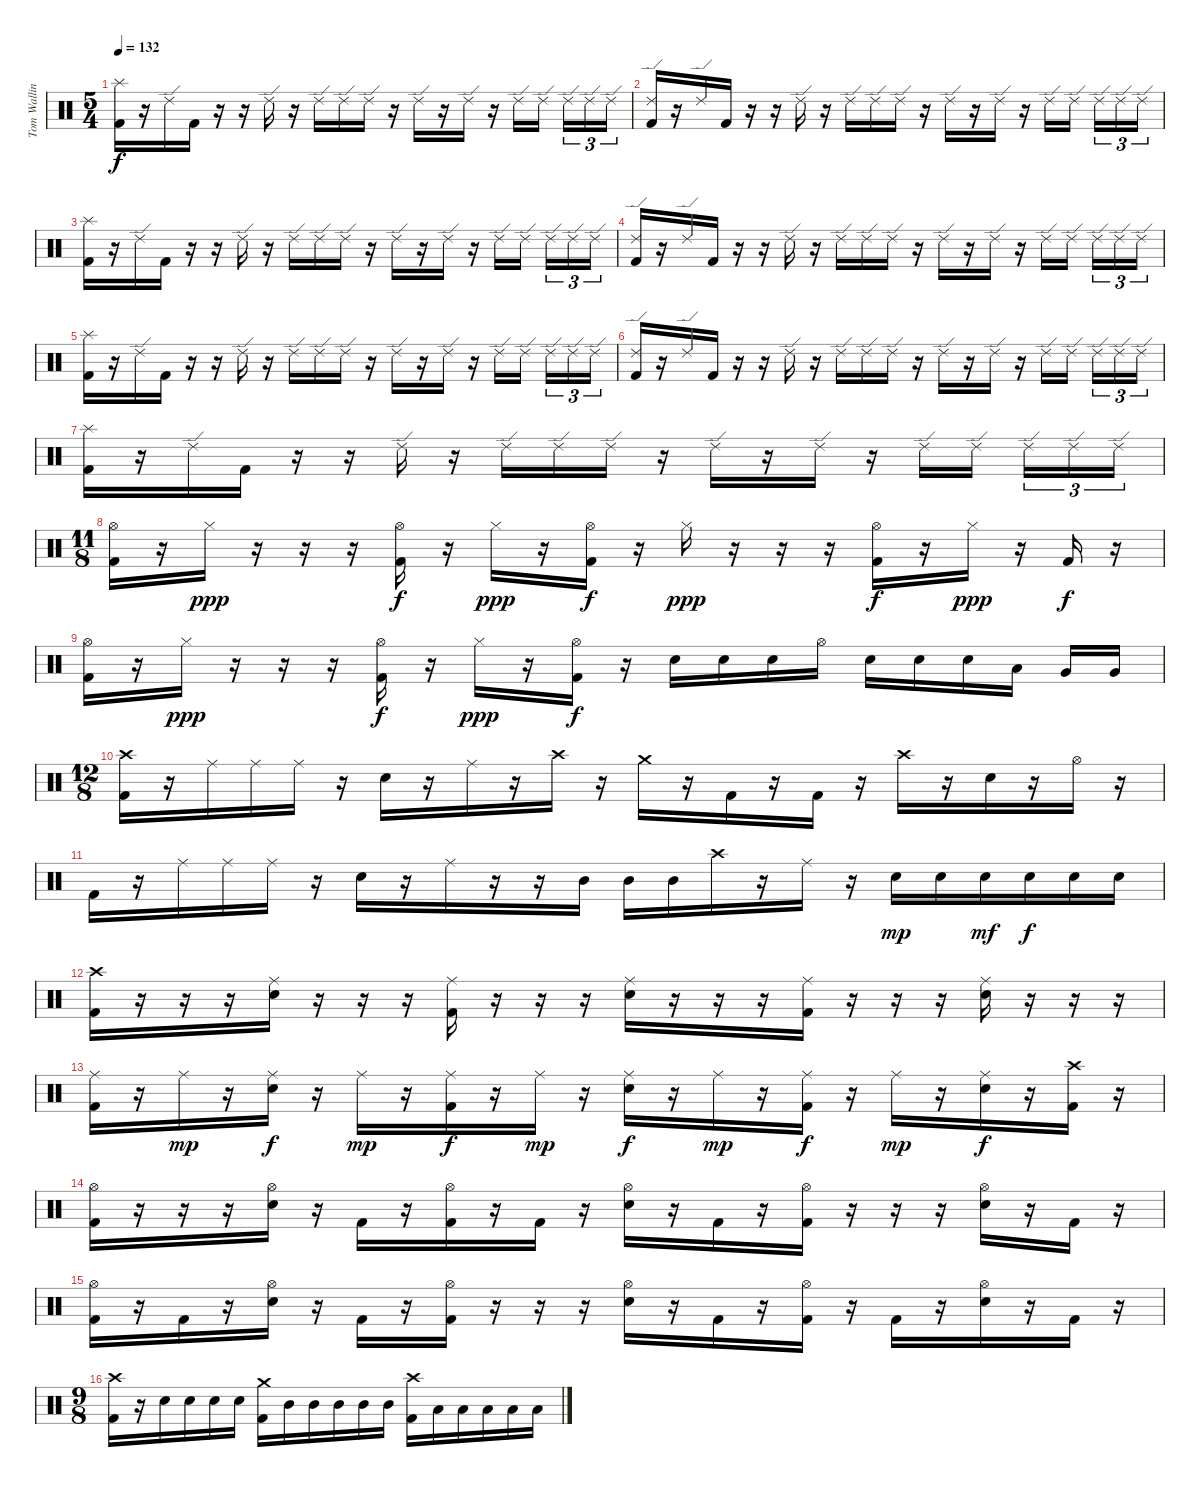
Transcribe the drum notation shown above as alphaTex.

\track ("Tom Walling [Drums]" "Tom Wallin") {instrument percussion}
\staff {score}
\articulation defaults
\ts (5 4)
\tempo 132
\clef neutral
\ks c
("Splash (hit)" "Kick (hit) 2").16{dy f} r.16 "Ride (edge) 2".16 "Kick (hit) 2".16 r.16 r.16 "Ride (edge) 2".16 r.16 "Ride (edge) 2".16 "Ride (edge) 2".16 "Ride (edge) 2".16 r.16 "Ride (edge) 2".16 r.16 "Ride (edge) 2".16 r.16 "Ride (edge) 2".16 "Ride (edge) 2".16 "Ride (edge) 2".16{tu (3 2)} "Ride (edge) 2".16{tu (3 2)} "Ride (edge) 2".16{tu (3 2)} |
("Ride (edge) 2" "Kick (hit) 2").16 r.16 "Ride (edge) 2".16 "Kick (hit) 2".16 r.16 r.16 "Ride (edge) 2".16 r.16 "Ride (edge) 2".16 "Ride (edge) 2".16 "Ride (edge) 2".16 r.16 "Ride (edge) 2".16 r.16 "Ride (edge) 2".16 r.16 "Ride (edge) 2".16 "Ride (edge) 2".16 "Ride (edge) 2".16{tu (3 2)} "Ride (edge) 2".16{tu (3 2)} "Ride (edge) 2".16{tu (3 2)} |
("Splash (hit)" "Kick (hit) 2").16 r.16 "Ride (edge) 2".16 "Kick (hit) 2".16 r.16 r.16 "Ride (edge) 2".16 r.16 "Ride (edge) 2".16 "Ride (edge) 2".16 "Ride (edge) 2".16 r.16 "Ride (edge) 2".16 r.16 "Ride (edge) 2".16 r.16 "Ride (edge) 2".16 "Ride (edge) 2".16 "Ride (edge) 2".16{tu (3 2)} "Ride (edge) 2".16{tu (3 2)} "Ride (edge) 2".16{tu (3 2)} |
("Ride (edge) 2" "Kick (hit) 2").16 r.16 "Ride (edge) 2".16 "Kick (hit) 2".16 r.16 r.16 "Ride (edge) 2".16 r.16 "Ride (edge) 2".16 "Ride (edge) 2".16 "Ride (edge) 2".16 r.16 "Ride (edge) 2".16 r.16 "Ride (edge) 2".16 r.16 "Ride (edge) 2".16 "Ride (edge) 2".16 "Ride (edge) 2".16{tu (3 2)} "Ride (edge) 2".16{tu (3 2)} "Ride (edge) 2".16{tu (3 2)} |
("Splash (hit)" "Kick (hit) 2").16 r.16 "Ride (edge) 2".16 "Kick (hit) 2".16 r.16 r.16 "Ride (edge) 2".16 r.16 "Ride (edge) 2".16 "Ride (edge) 2".16 "Ride (edge) 2".16 r.16 "Ride (edge) 2".16 r.16 "Ride (edge) 2".16 r.16 "Ride (edge) 2".16 "Ride (edge) 2".16 "Ride (edge) 2".16{tu (3 2)} "Ride (edge) 2".16{tu (3 2)} "Ride (edge) 2".16{tu (3 2)} |
("Ride (edge) 2" "Kick (hit) 2").16 r.16 "Ride (edge) 2".16 "Kick (hit) 2".16 r.16 r.16 "Ride (edge) 2".16 r.16 "Ride (edge) 2".16 "Ride (edge) 2".16 "Ride (edge) 2".16 r.16 "Ride (edge) 2".16 r.16 "Ride (edge) 2".16 r.16 "Ride (edge) 2".16 "Ride (edge) 2".16 "Ride (edge) 2".16{tu (3 2)} "Ride (edge) 2".16{tu (3 2)} "Ride (edge) 2".16{tu (3 2)} |
("Splash (hit)" "Kick (hit) 2").16 r.16 "Ride (edge) 2".16 "Kick (hit) 2".16 r.16 r.16 "Ride (edge) 2".16 r.16 "Ride (edge) 2".16 "Ride (edge) 2".16 "Ride (edge) 2".16 r.16 "Ride (edge) 2".16 r.16 "Ride (edge) 2".16 r.16 "Ride (edge) 2".16 "Ride (edge) 2".16 "Ride (edge) 2".16{tu (3 2)} "Ride (edge) 2".16{tu (3 2)} "Ride (edge) 2".16{tu (3 2)} |
\ts (11 8)
("Hi-Hat (open)" "Kick (hit) 2").16 r.16 "Hi-Hat (closed)".16{dy ppp} r.16 r.16 r.16 ("Hi-Hat (open)" "Kick (hit) 2").16{dy f} r.16 "Hi-Hat (closed)".16{dy ppp} r.16 ("Hi-Hat (open)" "Kick (hit) 2").16{dy f} r.16 "Hi-Hat (closed)".16{dy ppp} r.16 r.16 r.16 ("Hi-Hat (open)" "Kick (hit) 2").16{dy f} r.16 "Hi-Hat (closed)".16{dy ppp} r.16 "Kick (hit) 2".16{dy f} r.16 |
("Hi-Hat (open)" "Kick (hit) 2").16 r.16 "Hi-Hat (closed)".16{dy ppp} r.16 r.16 r.16 ("Hi-Hat (open)" "Kick (hit) 2").16{dy f} r.16 "Hi-Hat (closed)".16{dy ppp} r.16 ("Hi-Hat (open)" "Kick (hit) 2").16{dy f} r.16 "Electric Snare (hit)".16 "Electric Snare (hit)".16 "Electric Snare (hit)".16 "Hi-Hat (open)".16 "Electric Snare (hit)".16 "Electric Snare (hit)".16 "Electric Snare (hit)".16 "Low Tom (hit)".16 "Very Low Tom (hit)".16 "Very Low Tom (hit)".16 |
\ts (12 8)
("Crash high (hit)" "Kick (hit) 2").16 r.16 "Ride (middle)".16 "Ride (middle)".16 "Ride (middle)".16 r.16 "Electric Snare (hit)".16 r.16 "Ride (middle)".16 r.16 "Crash high (hit)".16 r.16 "Crash medium (hit)".16 r.16 "Kick (hit) 2".16 r.16 "Kick (hit) 2".16 r.16 "Crash high (hit)".16 r.16 "Electric Snare (hit)".16 r.16 "Hi-Hat (open)".16 r.16 |
"Kick (hit) 2".16 r.16 "Ride (middle)".16 "Ride (middle)".16 "Ride (middle)".16 r.16 "Electric Snare (hit)".16 r.16 "Ride (middle)".16 r.16 r.16 "Mid Tom (hit)".16 "Mid Tom (hit)".16 "Mid Tom (hit)".16 "Crash high (hit)".16 r.16 "Ride (middle)".16 r.16 "Electric Snare (hit)".16{dy mp} "Electric Snare (hit)".16 "Electric Snare (hit)".16{dy mf} "Electric Snare (hit)".16{dy f} "Electric Snare (hit)".16 "Electric Snare (hit)".16 |
("Crash high (hit)" "Kick (hit) 2").16 r.16 r.16 r.16 ("Ride (middle)" "Electric Snare (hit)").16 r.16 r.16 r.16 ("Ride (middle)" "Kick (hit) 2").16 r.16 r.16 r.16 ("Ride (middle)" "Electric Snare (hit)").16 r.16 r.16 r.16 ("Ride (middle)" "Kick (hit) 2").16 r.16 r.16 r.16 ("Ride (middle)" "Electric Snare (hit)").16 r.16 r.16 r.16 |
("Ride (middle)" "Kick (hit) 2").16 r.16 "Ride (middle)".16{dy mp} r.16 ("Ride (middle)" "Electric Snare (hit)").16{dy f} r.16 "Ride (middle)".16{dy mp} r.16 ("Ride (middle)" "Kick (hit) 2").16{dy f} r.16 "Ride (middle)".16{dy mp} r.16 ("Ride (middle)" "Electric Snare (hit)").16{dy f} r.16 "Ride (middle)".16{dy mp} r.16 ("Ride (middle)" "Kick (hit) 2").16{dy f} r.16 "Ride (middle)".16{dy mp} r.16 ("Ride (middle)" "Electric Snare (hit)").16{dy f} r.16 ("Crash high (hit)" "Kick (hit) 2").16 r.16 |
("Hi-Hat (open)" "Kick (hit) 2").16 r.16 r.16 r.16 ("Hi-Hat (open)" "Electric Snare (hit)").16 r.16 "Kick (hit) 2".16 r.16 ("Hi-Hat (open)" "Kick (hit) 2").16 r.16 "Kick (hit) 2".16 r.16 ("Hi-Hat (open)" "Electric Snare (hit)").16 r.16 "Kick (hit) 2".16 r.16 ("Hi-Hat (open)" "Kick (hit) 2").16 r.16 r.16 r.16 ("Hi-Hat (open)" "Electric Snare (hit)").16 r.16 "Kick (hit) 2".16 r.16 |
("Hi-Hat (open)" "Kick (hit) 2").16 r.16 "Kick (hit) 2".16 r.16 ("Hi-Hat (open)" "Electric Snare (hit)").16 r.16 "Kick (hit) 2".16 r.16 ("Hi-Hat (open)" "Kick (hit) 2").16 r.16 r.16 r.16 ("Hi-Hat (open)" "Electric Snare (hit)").16 r.16 "Kick (hit) 2".16 r.16 ("Hi-Hat (open)" "Kick (hit) 2").16 r.16 "Kick (hit) 2".16 r.16 ("Hi-Hat (open)" "Electric Snare (hit)").16 r.16 "Kick (hit) 2".16 r.16 |
\ts (9 8)
("Crash high (hit)" "Kick (hit) 2").16 r.16 "Electric Snare (hit)".16 "Electric Snare (hit)".16 "Electric Snare (hit)".16 "Electric Snare (hit)".16 ("Crash medium (hit)" "Kick (hit) 2").16 "Mid Tom (hit)".16 "Mid Tom (hit)".16 "Mid Tom (hit)".16 "Mid Tom (hit)".16 "Mid Tom (hit)".16 ("Crash high (hit)" "Kick (hit) 2").16 "Low Tom (hit)".16 "Low Tom (hit)".16 "Low Tom (hit)".16 "Low Tom (hit)".16 "Low Tom (hit)".16
